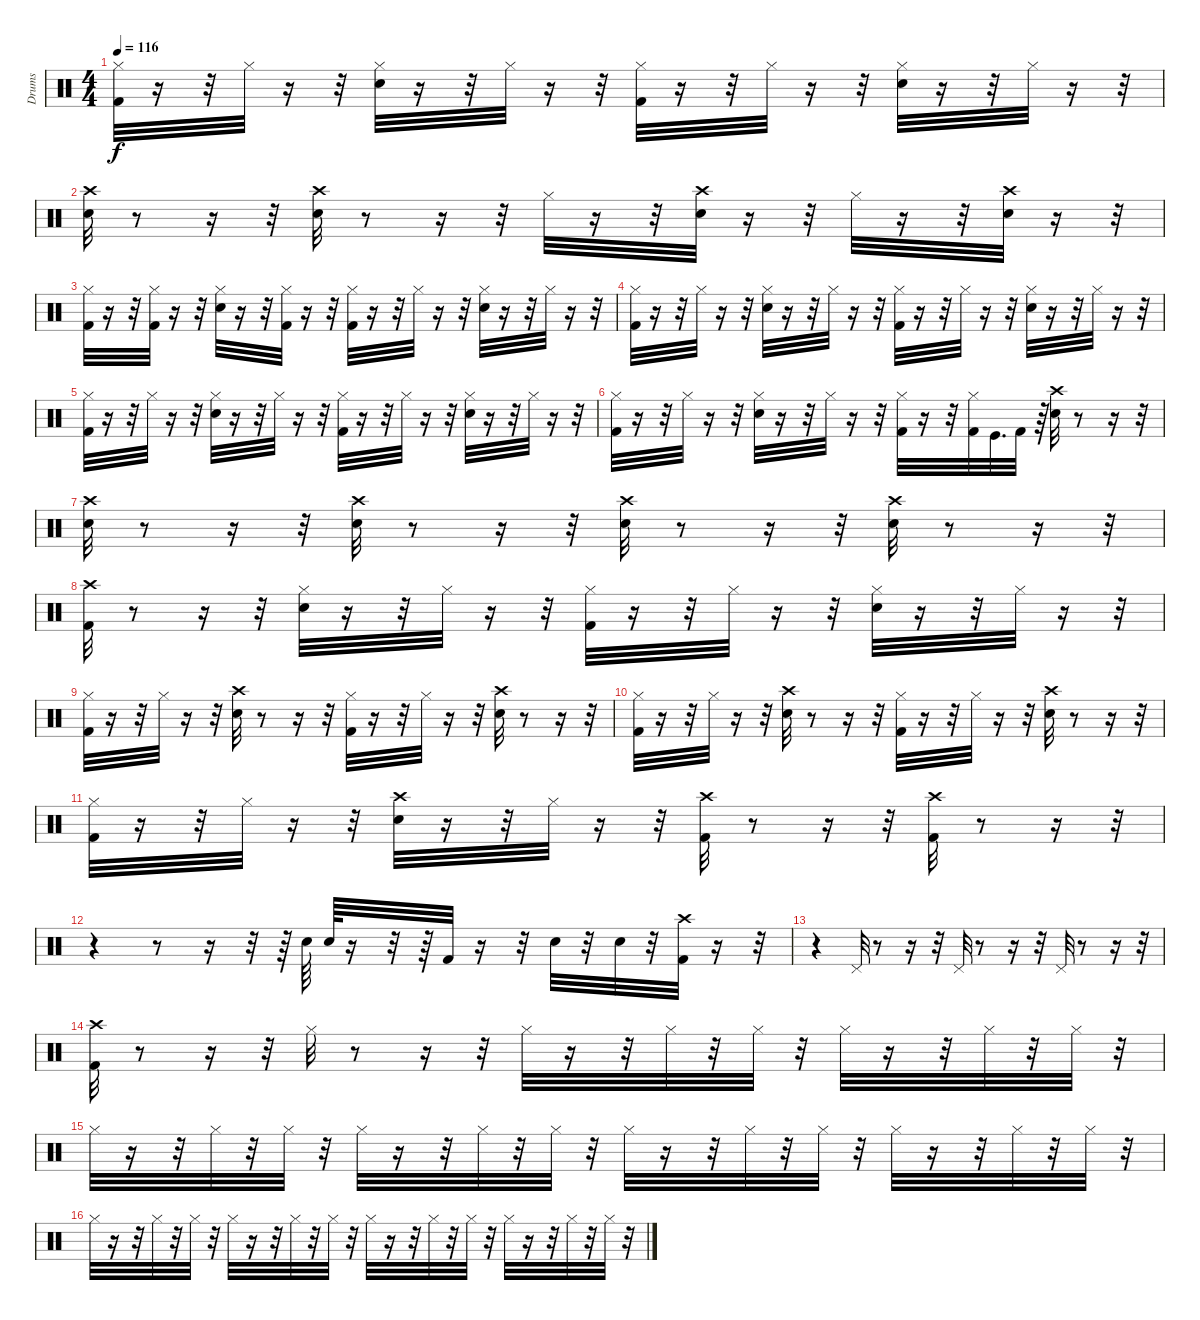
\track ("Drums" "Drums") {instrument percussion}
\staff {score}
\articulation defaults
\ts (4 4)
\tempo 116
\clef neutral
\ks c
("Kick (hit) 2" "Hi-Hat (closed)").32{dy f} r.16 r.32 "Hi-Hat (closed)".32 r.16 r.32 ("Snare (hit) 2" "Hi-Hat (closed)").32 r.16 r.32 "Hi-Hat (closed)".32 r.16 r.32 ("Kick (hit) 2" "Hi-Hat (closed)").32 r.16 r.32 "Hi-Hat (closed)".32 r.16 r.32 ("Snare (hit) 2" "Hi-Hat (closed)").32 r.16 r.32 "Hi-Hat (closed)".32 r.16 r.32 |
("Snare (hit) 2" "Crash high (hit)").32 r.8 r.16 r.32 ("Snare (hit) 2" "Crash high (hit)").32 r.8 r.16 r.32 "Hi-Hat (closed)".32 r.16 r.32 ("Crash high (hit)" "Snare (hit) 2").32 r.16 r.32 "Hi-Hat (closed)".32 r.16 r.32 ("Crash high (hit)" "Snare (hit) 2").32 r.16 r.32 |
("Kick (hit) 2" "Hi-Hat (closed)").32 r.16 r.32 ("Kick (hit) 2" "Hi-Hat (closed)").32 r.16 r.32 ("Snare (hit) 2" "Hi-Hat (closed)").32 r.16 r.32 ("Kick (hit) 2" "Hi-Hat (closed)").32 r.16 r.32 ("Hi-Hat (closed)" "Kick (hit) 2").32 r.16 r.32 "Hi-Hat (closed)".32 r.16 r.32 ("Snare (hit) 2" "Hi-Hat (closed)").32 r.16 r.32 "Hi-Hat (closed)".32 r.16 r.32 |
("Kick (hit) 2" "Hi-Hat (closed)").32 r.16 r.32 "Hi-Hat (closed)".32 r.16 r.32 ("Snare (hit) 2" "Hi-Hat (closed)").32 r.16 r.32 "Hi-Hat (closed)".32 r.16 r.32 ("Kick (hit) 2" "Hi-Hat (closed)").32 r.16 r.32 "Hi-Hat (closed)".32 r.16 r.32 ("Snare (hit) 2" "Hi-Hat (closed)").32 r.16 r.32 "Hi-Hat (closed)".32 r.16 r.32 |
("Kick (hit) 2" "Hi-Hat (closed)").32 r.16 r.32 "Hi-Hat (closed)".32 r.16 r.32 ("Snare (hit) 2" "Hi-Hat (closed)").32 r.16 r.32 "Hi-Hat (closed)".32 r.16 r.32 ("Kick (hit) 2" "Hi-Hat (closed)").32 r.16 r.32 "Hi-Hat (closed)".32 r.16 r.32 ("Snare (hit) 2" "Hi-Hat (closed)").32 r.16 r.32 "Hi-Hat (closed)".32 r.16 r.32 |
("Kick (hit) 2" "Hi-Hat (closed)").32 r.16 r.32 "Hi-Hat (closed)".32 r.16 r.32 ("Snare (hit) 2" "Hi-Hat (closed)").32 r.16 r.32 "Hi-Hat (closed)".32 r.16 r.32 ("Hi-Hat (closed)" "Kick (hit) 2").32 r.16 r.32 ("Hi-Hat (closed)" "Kick (hit) 2").32 "Kick (hit)".32{d} "Kick (hit) 2".32 r.64 ("Crash high (hit)" "Snare (hit) 2").32 r.8 r.16 r.32 |
("Snare (hit) 2" "Crash high (hit)").32 r.8 r.16 r.32 ("Crash high (hit)" "Snare (hit) 2").32 r.8 r.16 r.32 ("Crash high (hit)" "Snare (hit) 2").32 r.8 r.16 r.32 ("Crash high (hit)" "Snare (hit) 2").32 r.8 r.16 r.32 |
("Kick (hit) 2" "Crash high (hit)").32 r.8 r.16 r.32 ("Snare (hit) 2" "Hi-Hat (closed)").32 r.16 r.32 "Hi-Hat (closed)".32 r.16 r.32 ("Hi-Hat (closed)" "Kick (hit) 2").32 r.16 r.32 "Hi-Hat (closed)".32 r.16 r.32 ("Snare (hit) 2" "Hi-Hat (closed)").32 r.16 r.32 "Hi-Hat (closed)".32 r.16 r.32 |
("Kick (hit) 2" "Hi-Hat (closed)").32 r.16 r.32 "Hi-Hat (closed)".32 r.16 r.32 ("Crash high (hit)" "Snare (hit) 2").32 r.8 r.16 r.32 ("Hi-Hat (closed)" "Kick (hit) 2").32 r.16 r.32 "Hi-Hat (closed)".32 r.16 r.32 ("Crash high (hit)" "Snare (hit) 2").32 r.8 r.16 r.32 |
("Kick (hit) 2" "Hi-Hat (closed)").32 r.16 r.32 "Hi-Hat (closed)".32 r.16 r.32 ("Crash high (hit)" "Snare (hit) 2").32 r.8 r.16 r.32 ("Hi-Hat (closed)" "Kick (hit) 2").32 r.16 r.32 "Hi-Hat (closed)".32 r.16 r.32 ("Crash high (hit)" "Snare (hit) 2").32 r.8 r.16 r.32 |
("Kick (hit) 2" "Hi-Hat (closed)").32 r.16 r.32 "Hi-Hat (closed)".32 r.16 r.32 ("Crash high (hit)" "Snare (hit) 2").32 r.16 r.32 "Hi-Hat (closed)".32 r.16 r.32 ("Crash high (hit)" "Kick (hit) 2").32 r.8 r.16 r.32 ("Crash high (hit)" "Kick (hit) 2").32 r.8 r.16 r.32 |
r.4 r.8 r.16 r.32 r.64 "Snare (hit) 2".64 "Snare (hit) 2".64 r.16 r.32 r.64 "Kick (hit) 2".32 r.16 r.32 "Snare (hit) 2".32 r.32 "Snare (hit) 2".32 r.32 ("Crash high (hit)" "Kick (hit) 2").32 r.16 r.32 |
r.4 "Pedal Hi-Hat (hit)".32 r.8 r.16 r.32 "Pedal Hi-Hat (hit)".32 r.8 r.16 r.32 "Pedal Hi-Hat (hit)".32 r.8 r.16 r.32 |
("Kick (hit) 2" "Crash high (hit)").32 r.8 r.16 r.32 "Hi-Hat (closed)".32 r.8 r.16 r.32 "Hi-Hat (closed)".32 r.16 r.32 "Hi-Hat (closed)".32 r.32 "Hi-Hat (closed)".32 r.32 "Hi-Hat (closed)".32 r.16 r.32 "Hi-Hat (closed)".32 r.32 "Hi-Hat (closed)".32 r.32 |
"Hi-Hat (closed)".32 r.16 r.32 "Hi-Hat (closed)".32 r.32 "Hi-Hat (closed)".32 r.32 "Hi-Hat (closed)".32 r.16 r.32 "Hi-Hat (closed)".32 r.32 "Hi-Hat (closed)".32 r.32 "Hi-Hat (closed)".32 r.16 r.32 "Hi-Hat (closed)".32 r.32 "Hi-Hat (closed)".32 r.32 "Hi-Hat (closed)".32 r.16 r.32 "Hi-Hat (closed)".32 r.32 "Hi-Hat (closed)".32 r.32 |
"Hi-Hat (closed)".32 r.16 r.32 "Hi-Hat (closed)".32 r.32 "Hi-Hat (closed)".32 r.32 "Hi-Hat (closed)".32 r.16 r.32 "Hi-Hat (closed)".32 r.32 "Hi-Hat (closed)".32 r.32 "Hi-Hat (closed)".32 r.16 r.32 "Hi-Hat (closed)".32 r.32 "Hi-Hat (closed)".32 r.32 "Hi-Hat (closed)".32 r.16 r.32 "Hi-Hat (closed)".32 r.32 "Hi-Hat (closed)".32 r.32
